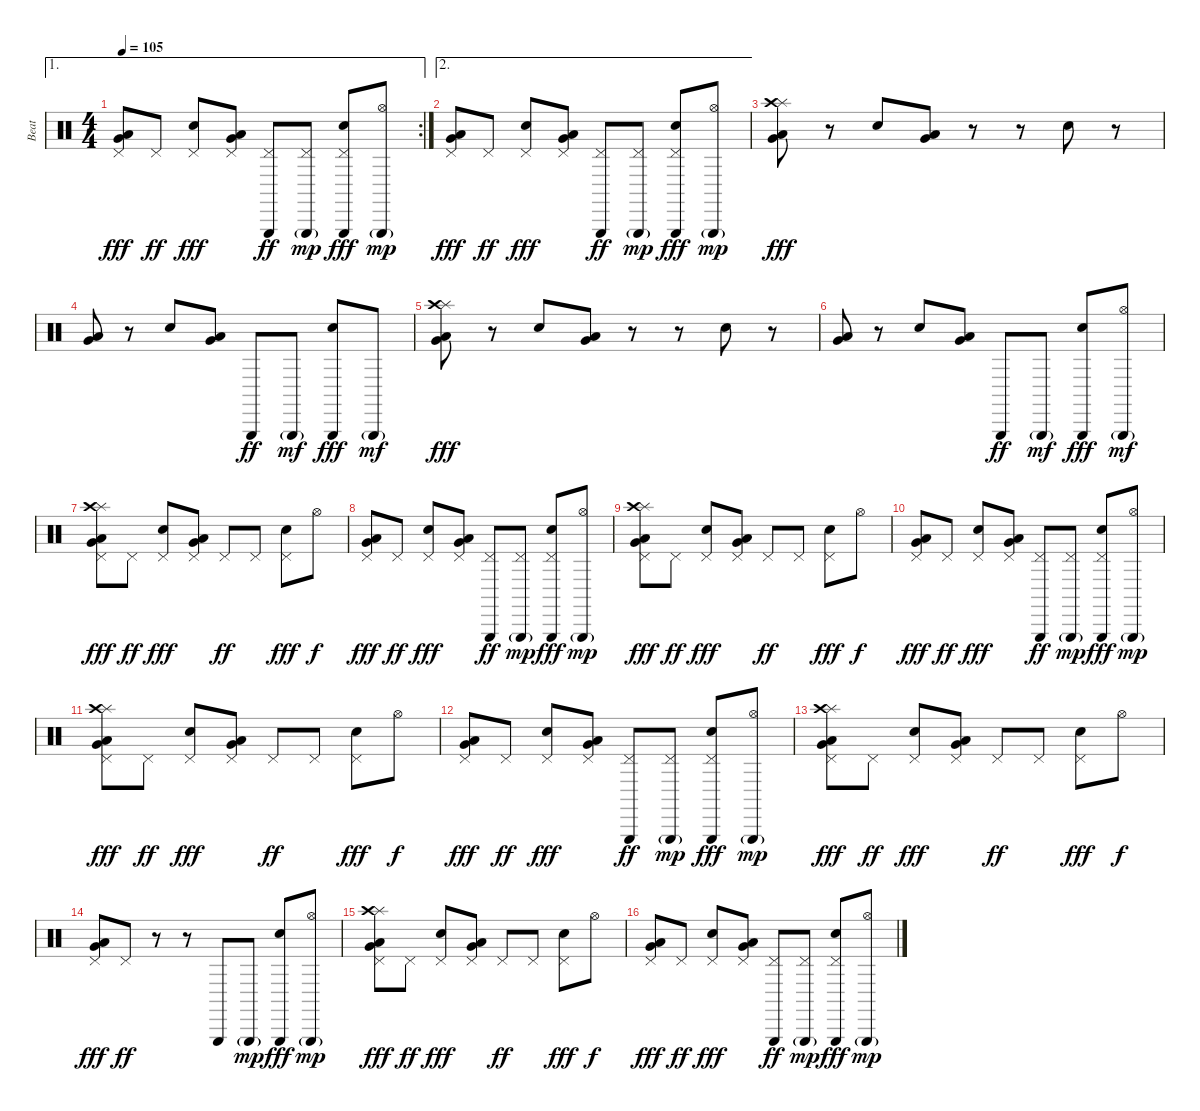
\track ("Beat" "Beat") {instrument percussion}
\staff {score}
\articulation defaults
\ae 1
\rc 2
\ts (4 4)
\tempo 105
\clef neutral
\ks c
("Pedal Hi-Hat (hit)" "Low Floor Tom (hit)" "Very Low Tom (hit)").8{dy fff} "Pedal Hi-Hat (hit)".8{dy ff} ("Pedal Hi-Hat (hit)" "Hand Clap (hit)").8{dy fff} ("Pedal Hi-Hat (hit)" "Low Floor Tom (hit)" "Very Low Tom (hit)").8 ("Pedal Hi-Hat (hit)" "Triangle (hit)").8{dy ff} ("Pedal Hi-Hat (hit)" "Triangle (hit)"{g}).8{dy mp} ("Pedal Hi-Hat (hit)" "Triangle (hit)" "Hand Clap (hit)").8{dy fff} ("Hi-Hat (open)" "Triangle (hit)"{g}).8{dy mp} |
\ae 2
("Pedal Hi-Hat (hit)" "Low Floor Tom (hit)" "Very Low Tom (hit)").8{dy fff} "Pedal Hi-Hat (hit)".8{dy ff} ("Pedal Hi-Hat (hit)" "Hand Clap (hit)").8{dy fff} ("Pedal Hi-Hat (hit)" "Low Floor Tom (hit)" "Very Low Tom (hit)").8 ("Pedal Hi-Hat (hit)" "Triangle (hit)").8{dy ff} ("Pedal Hi-Hat (hit)" "Triangle (hit)"{g}).8{dy mp} ("Pedal Hi-Hat (hit)" "Triangle (hit)" "Hand Clap (hit)").8{dy fff} ("Hi-Hat (open)" "Triangle (hit)"{g}).8{dy mp} |
("Splash (hit)" "Crash high (hit)" "Low Floor Tom (hit)" "Very Low Tom (hit)").8{dy fff} r.8 "Hand Clap (hit)".8 ("Low Floor Tom (hit)" "Very Low Tom (hit)").8 r.8 r.8 "Hand Clap (hit)".8 r.8 |
("Low Floor Tom (hit)" "Very Low Tom (hit)").8 r.8 "Hand Clap (hit)".8 ("Low Floor Tom (hit)" "Very Low Tom (hit)").8 "Triangle (hit)".8{dy ff} "Triangle (hit)"{g}.8{dy mf} ("Triangle (hit)" "Hand Clap (hit)").8{dy fff} "Triangle (hit)"{g}.8{dy mf} |
("Splash (hit)" "Crash high (hit)" "Low Floor Tom (hit)" "Very Low Tom (hit)").8{dy fff} r.8 "Hand Clap (hit)".8 ("Low Floor Tom (hit)" "Very Low Tom (hit)").8 r.8 r.8 "Hand Clap (hit)".8 r.8 |
("Low Floor Tom (hit)" "Very Low Tom (hit)").8 r.8 "Hand Clap (hit)".8 ("Low Floor Tom (hit)" "Very Low Tom (hit)").8 "Triangle (hit)".8{dy ff} "Triangle (hit)"{g}.8{dy mf} ("Triangle (hit)" "Hand Clap (hit)").8{dy fff} ("Hi-Hat (open)" "Triangle (hit)"{g}).8{dy mf} |
("Pedal Hi-Hat (hit)" "Splash (hit)" "Crash high (hit)" "Low Floor Tom (hit)" "Very Low Tom (hit)").8{dy fff} "Pedal Hi-Hat (hit)".8{dy ff} ("Pedal Hi-Hat (hit)" "Hand Clap (hit)").8{dy fff} ("Pedal Hi-Hat (hit)" "Low Floor Tom (hit)" "Very Low Tom (hit)").8 "Pedal Hi-Hat (hit)".8{dy ff} "Pedal Hi-Hat (hit)".8 ("Pedal Hi-Hat (hit)" "Hand Clap (hit)").8{dy fff} "Hi-Hat (open)".8{dy f} |
("Pedal Hi-Hat (hit)" "Low Floor Tom (hit)" "Very Low Tom (hit)").8{dy fff} "Pedal Hi-Hat (hit)".8{dy ff} ("Pedal Hi-Hat (hit)" "Hand Clap (hit)").8{dy fff} ("Pedal Hi-Hat (hit)" "Low Floor Tom (hit)" "Very Low Tom (hit)").8 ("Pedal Hi-Hat (hit)" "Triangle (hit)").8{dy ff} ("Pedal Hi-Hat (hit)" "Triangle (hit)"{g}).8{dy mp} ("Pedal Hi-Hat (hit)" "Triangle (hit)" "Hand Clap (hit)").8{dy fff} ("Hi-Hat (open)" "Triangle (hit)"{g}).8{dy mp} |
("Pedal Hi-Hat (hit)" "Splash (hit)" "Crash high (hit)" "Low Floor Tom (hit)" "Very Low Tom (hit)").8{dy fff} "Pedal Hi-Hat (hit)".8{dy ff} ("Pedal Hi-Hat (hit)" "Hand Clap (hit)").8{dy fff} ("Pedal Hi-Hat (hit)" "Low Floor Tom (hit)" "Very Low Tom (hit)").8 "Pedal Hi-Hat (hit)".8{dy ff} "Pedal Hi-Hat (hit)".8 ("Pedal Hi-Hat (hit)" "Hand Clap (hit)").8{dy fff} "Hi-Hat (open)".8{dy f} |
("Pedal Hi-Hat (hit)" "Low Floor Tom (hit)" "Very Low Tom (hit)").8{dy fff} "Pedal Hi-Hat (hit)".8{dy ff} ("Pedal Hi-Hat (hit)" "Hand Clap (hit)").8{dy fff} ("Pedal Hi-Hat (hit)" "Low Floor Tom (hit)" "Very Low Tom (hit)").8 ("Pedal Hi-Hat (hit)" "Triangle (hit)").8{dy ff} ("Pedal Hi-Hat (hit)" "Triangle (hit)"{g}).8{dy mp} ("Pedal Hi-Hat (hit)" "Triangle (hit)" "Hand Clap (hit)").8{dy fff} ("Hi-Hat (open)" "Triangle (hit)"{g}).8{dy mp} |
("Pedal Hi-Hat (hit)" "Splash (hit)" "Crash high (hit)" "Low Floor Tom (hit)" "Very Low Tom (hit)").8{dy fff} "Pedal Hi-Hat (hit)".8{dy ff} ("Pedal Hi-Hat (hit)" "Hand Clap (hit)").8{dy fff} ("Pedal Hi-Hat (hit)" "Low Floor Tom (hit)" "Very Low Tom (hit)").8 "Pedal Hi-Hat (hit)".8{dy ff} "Pedal Hi-Hat (hit)".8 ("Pedal Hi-Hat (hit)" "Hand Clap (hit)").8{dy fff} "Hi-Hat (open)".8{dy f} |
("Pedal Hi-Hat (hit)" "Low Floor Tom (hit)" "Very Low Tom (hit)").8{dy fff} "Pedal Hi-Hat (hit)".8{dy ff} ("Pedal Hi-Hat (hit)" "Hand Clap (hit)").8{dy fff} ("Pedal Hi-Hat (hit)" "Low Floor Tom (hit)" "Very Low Tom (hit)").8 ("Pedal Hi-Hat (hit)" "Triangle (hit)").8{dy ff} ("Pedal Hi-Hat (hit)" "Triangle (hit)"{g}).8{dy mp} ("Pedal Hi-Hat (hit)" "Triangle (hit)" "Hand Clap (hit)").8{dy fff} ("Hi-Hat (open)" "Triangle (hit)"{g}).8{dy mp} |
("Pedal Hi-Hat (hit)" "Splash (hit)" "Crash high (hit)" "Low Floor Tom (hit)" "Very Low Tom (hit)").8{dy fff} "Pedal Hi-Hat (hit)".8{dy ff} ("Pedal Hi-Hat (hit)" "Hand Clap (hit)").8{dy fff} ("Pedal Hi-Hat (hit)" "Low Floor Tom (hit)" "Very Low Tom (hit)").8 "Pedal Hi-Hat (hit)".8{dy ff} "Pedal Hi-Hat (hit)".8 ("Pedal Hi-Hat (hit)" "Hand Clap (hit)").8{dy fff} "Hi-Hat (open)".8{dy f} |
("Pedal Hi-Hat (hit)" "Low Floor Tom (hit)" "Very Low Tom (hit)").8{dy fff} "Pedal Hi-Hat (hit)".8{dy ff} r.8 r.8 "Triangle (hit)".8 "Triangle (hit)"{g}.8{dy mp} ("Triangle (hit)" "Hand Clap (hit)").8{dy fff} ("Hi-Hat (open)" "Triangle (hit)"{g}).8{dy mp} |
("Pedal Hi-Hat (hit)" "Splash (hit)" "Crash high (hit)" "Low Floor Tom (hit)" "Very Low Tom (hit)").8{dy fff} "Pedal Hi-Hat (hit)".8{dy ff} ("Pedal Hi-Hat (hit)" "Hand Clap (hit)").8{dy fff} ("Pedal Hi-Hat (hit)" "Low Floor Tom (hit)" "Very Low Tom (hit)").8 "Pedal Hi-Hat (hit)".8{dy ff} "Pedal Hi-Hat (hit)".8 ("Pedal Hi-Hat (hit)" "Hand Clap (hit)").8{dy fff} "Hi-Hat (open)".8{dy f} |
("Pedal Hi-Hat (hit)" "Low Floor Tom (hit)" "Very Low Tom (hit)").8{dy fff} "Pedal Hi-Hat (hit)".8{dy ff} ("Pedal Hi-Hat (hit)" "Hand Clap (hit)").8{dy fff} ("Pedal Hi-Hat (hit)" "Low Floor Tom (hit)" "Very Low Tom (hit)").8 ("Pedal Hi-Hat (hit)" "Triangle (hit)").8{dy ff} ("Pedal Hi-Hat (hit)" "Triangle (hit)"{g}).8{dy mp} ("Pedal Hi-Hat (hit)" "Triangle (hit)" "Hand Clap (hit)").8{dy fff} ("Hi-Hat (open)" "Triangle (hit)"{g}).8{dy mp}
